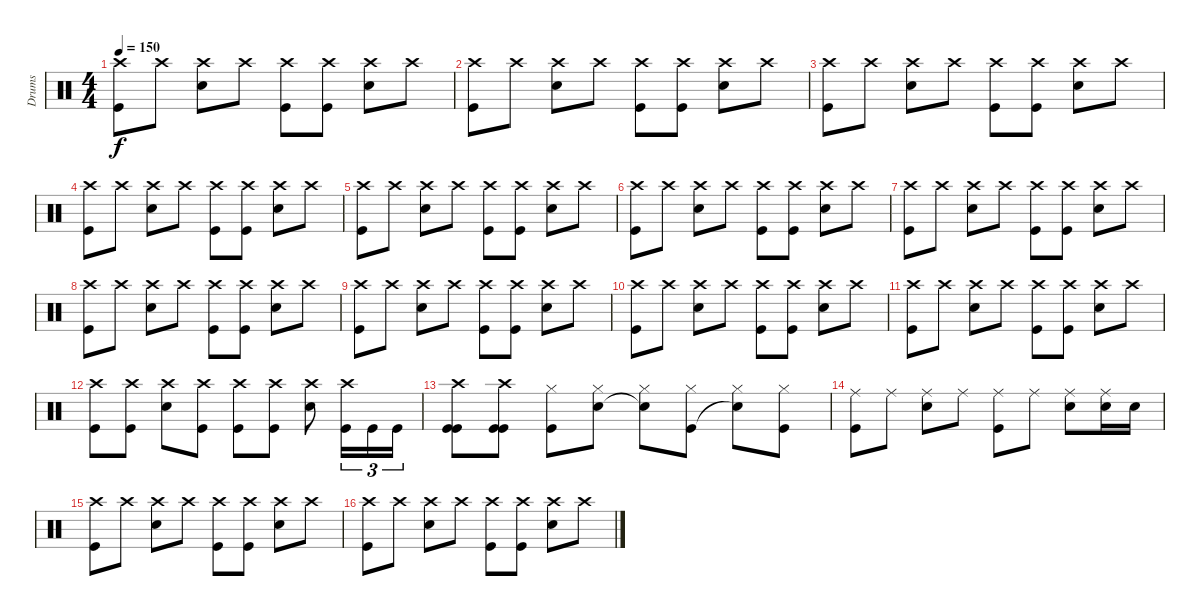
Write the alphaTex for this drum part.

\track ("Drums" "Drums") {instrument percussion}
\staff {score}
\articulation defaults
\ts (4 4)
\tempo 150
\clef neutral
\ks c
("Crash high (hit)" "Kick (hit)").8{dy f} "Crash high (hit)".8 ("Crash high (hit)" "Snare (hit) 2").8 "Crash high (hit)".8 ("Crash high (hit)" "Kick (hit)").8 ("Crash high (hit)" "Kick (hit)").8 ("Crash high (hit)" "Snare (hit) 2").8 "Crash high (hit)".8 |
("Crash high (hit)" "Kick (hit)").8 "Crash high (hit)".8 ("Crash high (hit)" "Snare (hit) 2").8 "Crash high (hit)".8 ("Crash high (hit)" "Kick (hit)").8 ("Crash high (hit)" "Kick (hit)").8 ("Crash high (hit)" "Snare (hit) 2").8 "Crash high (hit)".8 |
("Crash high (hit)" "Kick (hit)").8 "Crash high (hit)".8 ("Crash high (hit)" "Snare (hit) 2").8 "Crash high (hit)".8 ("Crash high (hit)" "Kick (hit)").8 ("Crash high (hit)" "Kick (hit)").8 ("Crash high (hit)" "Snare (hit) 2").8 "Crash high (hit)".8 |
("Crash high (hit)" "Kick (hit)").8 "Crash high (hit)".8 ("Crash high (hit)" "Snare (hit) 2").8 "Crash high (hit)".8 ("Crash high (hit)" "Kick (hit)").8 ("Crash high (hit)" "Kick (hit)").8 ("Crash high (hit)" "Snare (hit) 2").8 "Crash high (hit)".8 |
("Crash high (hit)" "Kick (hit)").8 "Crash high (hit)".8 ("Crash high (hit)" "Snare (hit) 2").8 "Crash high (hit)".8 ("Crash high (hit)" "Kick (hit)").8 ("Crash high (hit)" "Kick (hit)").8 ("Crash high (hit)" "Snare (hit) 2").8 "Crash high (hit)".8 |
("Crash high (hit)" "Kick (hit)").8 "Crash high (hit)".8 ("Crash high (hit)" "Snare (hit) 2").8 "Crash high (hit)".8 ("Crash high (hit)" "Kick (hit)").8 ("Crash high (hit)" "Kick (hit)").8 ("Crash high (hit)" "Snare (hit) 2").8 "Crash high (hit)".8 |
("Crash high (hit)" "Kick (hit)").8 "Crash high (hit)".8 ("Crash high (hit)" "Snare (hit) 2").8 "Crash high (hit)".8 ("Crash high (hit)" "Kick (hit)").8 ("Crash high (hit)" "Kick (hit)").8 ("Crash high (hit)" "Snare (hit) 2").8 "Crash high (hit)".8 |
("Crash high (hit)" "Kick (hit)").8 "Crash high (hit)".8 ("Crash high (hit)" "Snare (hit) 2").8 "Crash high (hit)".8 ("Crash high (hit)" "Kick (hit)").8 ("Crash high (hit)" "Kick (hit)").8 ("Crash high (hit)" "Snare (hit) 2").8 "Crash high (hit)".8 |
("Crash high (hit)" "Kick (hit)").8 "Crash high (hit)".8 ("Crash high (hit)" "Snare (hit) 2").8 "Crash high (hit)".8 ("Crash high (hit)" "Kick (hit)").8 ("Crash high (hit)" "Kick (hit)").8 ("Crash high (hit)" "Snare (hit) 2").8 "Crash high (hit)".8 |
("Crash high (hit)" "Kick (hit)").8 "Crash high (hit)".8 ("Crash high (hit)" "Snare (hit) 2").8 "Crash high (hit)".8 ("Crash high (hit)" "Kick (hit)").8 ("Crash high (hit)" "Kick (hit)").8 ("Crash high (hit)" "Snare (hit) 2").8 "Crash high (hit)".8 |
("Crash high (hit)" "Kick (hit)").8 "Crash high (hit)".8 ("Crash high (hit)" "Snare (hit) 2").8 "Crash high (hit)".8 ("Crash high (hit)" "Kick (hit)").8 ("Crash high (hit)" "Kick (hit)").8 ("Crash high (hit)" "Snare (hit) 2").8 "Crash high (hit)".8 |
("Crash high (hit)" "Kick (hit)").8 ("Crash high (hit)" "Kick (hit)").8 ("Crash high (hit)" "Snare (hit) 2").8 ("Crash high (hit)" "Kick (hit)").8 ("Crash high (hit)" "Kick (hit)").8 ("Crash high (hit)" "Kick (hit)").8 ("Crash high (hit)" "Snare (hit) 2").8 ("Crash high (hit)" "Kick (hit)").16{tu (3 2)} "Kick (hit)".16{tu (3 2)} "Kick (hit)".16{tu (3 2)} |
("Crash high (hit)" "Kick (hit)" "Kick (hit)").8 ("Crash high (hit)" "Kick (hit)" "Kick (hit)").8 ("Hi-Hat (closed)" "Kick (hit)").8 ("Hi-Hat (closed)" "Snare (hit) 2").8 ("Hi-Hat (closed)" "Snare (hit)"{t}).8 ("Hi-Hat (closed)" "Kick (hit)").8 ("Hi-Hat (closed)" "Snare (hit)"{t}).8 ("Hi-Hat (closed)" "Kick (hit)").8 |
("Ride (middle)" "Kick (hit)").8 "Ride (middle)".8 ("Ride (middle)" "Snare (hit) 2").8 "Ride (middle)".8 ("Ride (middle)" "Kick (hit)").8 "Ride (middle)".8 ("Ride (middle)" "Snare (hit) 2").8 ("Ride (middle)" "Snare (hit) 2").16 "Snare (hit) 2".16 |
("Crash high (hit)" "Kick (hit)").8 "Crash high (hit)".8 ("Crash high (hit)" "Snare (hit) 2").8 "Crash high (hit)".8 ("Crash high (hit)" "Kick (hit)").8 ("Crash high (hit)" "Kick (hit)").8 ("Crash high (hit)" "Snare (hit) 2").8 "Crash high (hit)".8 |
("Crash high (hit)" "Kick (hit)").8 "Crash high (hit)".8 ("Crash high (hit)" "Snare (hit) 2").8 "Crash high (hit)".8 ("Crash high (hit)" "Kick (hit)").8 ("Crash high (hit)" "Kick (hit)").8 ("Crash high (hit)" "Snare (hit) 2").8 "Crash high (hit)".8
